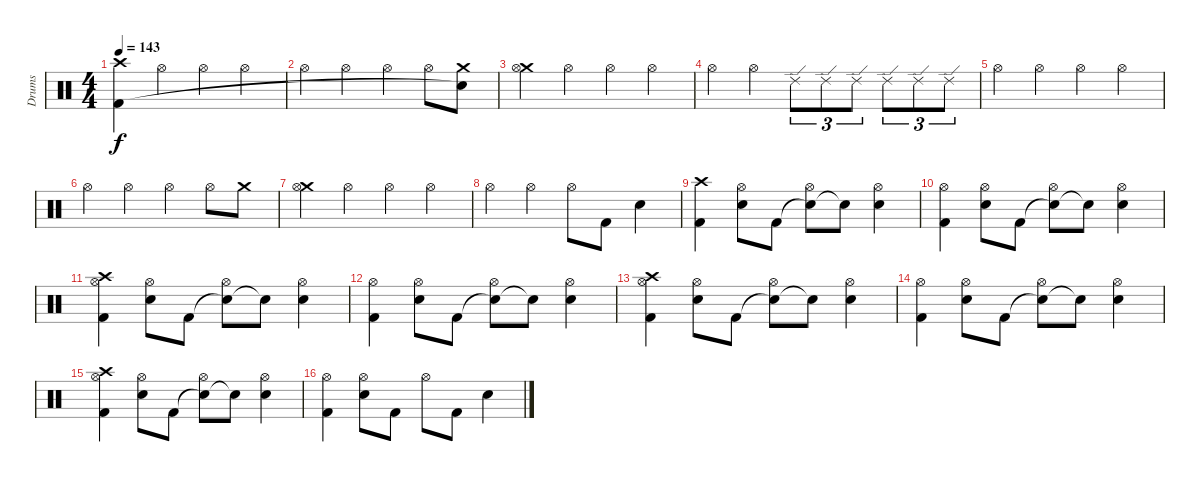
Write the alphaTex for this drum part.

\track ("Drums" "Drums") {instrument percussion}
\staff {score}
\articulation defaults
\ts (4 4)
\tempo 143
\clef neutral
\ks c
("Crash high (hit)" "Kick (hit) 2").4{dy f} "Hi-Hat (open)".4 "Hi-Hat (open)".4 "Hi-Hat (open)".4 |
"Hi-Hat (open)".4 "Hi-Hat (open)".4 "Hi-Hat (open)".4 "Hi-Hat (open)".8 ("Crash medium (hit)" "Snare (hit)"{t}).8 |
("Crash medium (hit)" "Hi-Hat (open)").4 "Hi-Hat (open)".4 "Hi-Hat (open)".4 "Hi-Hat (open)".4 |
"Hi-Hat (open)".4 "Hi-Hat (open)".4 "Ride (edge) 2".8{tu (3 2)} "Ride (edge) 2".8{tu (3 2)} "Ride (edge) 2".8{tu (3 2)} "Ride (edge) 2".8{tu (3 2)} "Ride (edge) 2".8{tu (3 2)} "Ride (edge) 2".8{tu (3 2)} |
"Hi-Hat (open)".4 "Hi-Hat (open)".4 "Hi-Hat (open)".4 "Hi-Hat (open)".4 |
"Hi-Hat (open)".4 "Hi-Hat (open)".4 "Hi-Hat (open)".4 "Hi-Hat (open)".8 "Crash medium (hit)".8 |
("Crash medium (hit)" "Hi-Hat (open)").4 "Hi-Hat (open)".4 "Hi-Hat (open)".4 "Hi-Hat (open)".4 |
"Hi-Hat (open)".4 "Hi-Hat (open)".4 "Hi-Hat (open)".8 "Kick (hit) 2".8 "Snare (hit) 2".4 |
("Crash high (hit)" "Kick (hit) 2").4 ("Snare (hit) 2" "Hi-Hat (open)").8 "Kick (hit) 2".8 ("Snare (hit)"{t} "Hi-Hat (open)").8 "Snare (hit)"{t}.8 ("Snare (hit) 2" "Hi-Hat (open)").4 |
("Kick (hit) 2" "Hi-Hat (open)").4 ("Snare (hit) 2" "Hi-Hat (open)").8 "Kick (hit) 2".8 ("Snare (hit)"{t} "Hi-Hat (open)").8 "Snare (hit)"{t}.8 ("Snare (hit) 2" "Hi-Hat (open)").4 |
("Crash high (hit)" "Kick (hit) 2" "Hi-Hat (open)").4 ("Snare (hit) 2" "Hi-Hat (open)").8 "Kick (hit) 2".8 ("Snare (hit)"{t} "Hi-Hat (open)").8 "Snare (hit)"{t}.8 ("Snare (hit) 2" "Hi-Hat (open)").4 |
("Kick (hit) 2" "Hi-Hat (open)").4 ("Snare (hit) 2" "Hi-Hat (open)").8 "Kick (hit) 2".8 ("Snare (hit)"{t} "Hi-Hat (open)").8 "Snare (hit)"{t}.8 ("Snare (hit) 2" "Hi-Hat (open)").4 |
("Crash high (hit)" "Kick (hit) 2" "Hi-Hat (open)").4 ("Snare (hit) 2" "Hi-Hat (open)").8 "Kick (hit) 2".8 ("Snare (hit)"{t} "Hi-Hat (open)").8 "Snare (hit)"{t}.8 ("Snare (hit) 2" "Hi-Hat (open)").4 |
("Kick (hit) 2" "Hi-Hat (open)").4 ("Snare (hit) 2" "Hi-Hat (open)").8 "Kick (hit) 2".8 ("Snare (hit)"{t} "Hi-Hat (open)").8 "Snare (hit)"{t}.8 ("Snare (hit) 2" "Hi-Hat (open)").4 |
("Crash high (hit)" "Kick (hit) 2" "Hi-Hat (open)").4 ("Snare (hit) 2" "Hi-Hat (open)").8 "Kick (hit) 2".8 ("Snare (hit)"{t} "Hi-Hat (open)").8 "Snare (hit)"{t}.8 ("Snare (hit) 2" "Hi-Hat (open)").4 |
("Kick (hit) 2" "Hi-Hat (open)").4 ("Snare (hit) 2" "Hi-Hat (open)").8 "Kick (hit) 2".8 "Hi-Hat (open)".8 "Kick (hit) 2".8 "Snare (hit) 2".4
